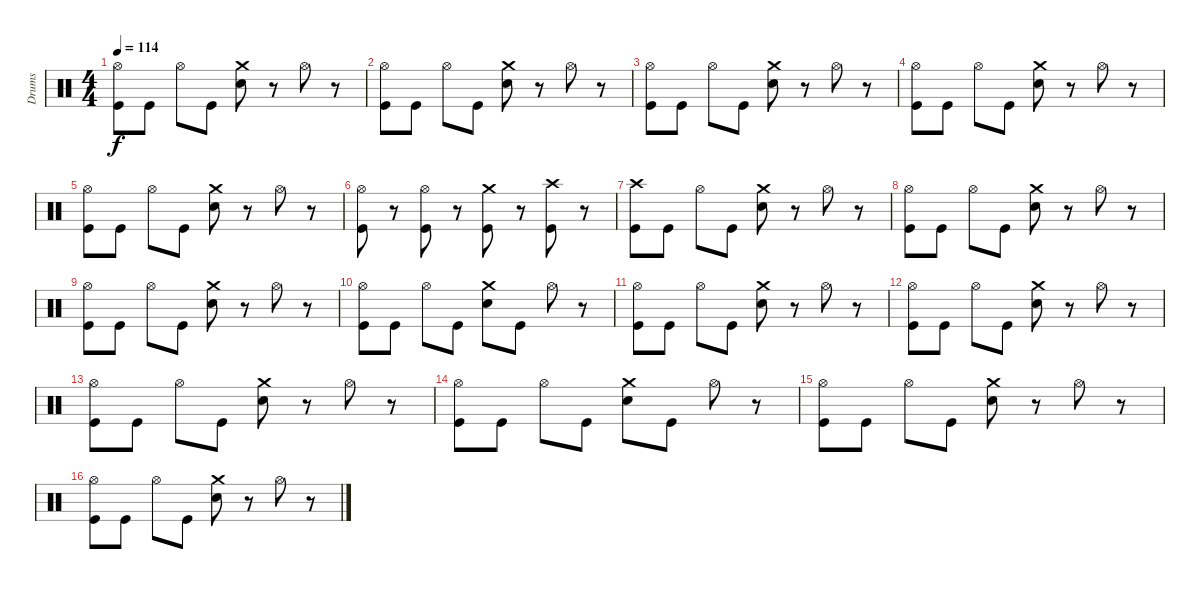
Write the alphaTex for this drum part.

\track ("Drums" "Drums") {instrument percussion}
\staff {score}
\articulation defaults
\ts (4 4)
\tempo 114
\clef neutral
\ks c
("Kick (hit)" "Hi-Hat (open)").8{dy f} "Kick (hit)".8 "Hi-Hat (open)".8 "Kick (hit)".8 ("Crash medium (hit)" "Electric Snare (hit)").8 r.8 "Hi-Hat (open)".8 r.8 |
("Kick (hit)" "Hi-Hat (open)").8 "Kick (hit)".8 "Hi-Hat (open)".8 "Kick (hit)".8 ("Crash medium (hit)" "Electric Snare (hit)").8 r.8 "Hi-Hat (open)".8 r.8 |
("Hi-Hat (open)" "Kick (hit)").8 "Kick (hit)".8 "Hi-Hat (open)".8 "Kick (hit)".8 ("Crash medium (hit)" "Electric Snare (hit)").8 r.8 "Hi-Hat (open)".8 r.8 |
("Kick (hit)" "Hi-Hat (open)").8 "Kick (hit)".8 "Hi-Hat (open)".8 "Kick (hit)".8 ("Crash medium (hit)" "Electric Snare (hit)").8 r.8 "Hi-Hat (open)".8 r.8 |
("Kick (hit)" "Hi-Hat (open)").8 "Kick (hit)".8 "Hi-Hat (open)".8 "Kick (hit)".8 ("Crash medium (hit)" "Electric Snare (hit)").8 r.8 "Hi-Hat (open)".8 r.8 |
("Hi-Hat (open)" "Kick (hit)").8 r.8 ("Hi-Hat (open)" "Kick (hit)").8 r.8 ("Crash medium (hit)" "Kick (hit)").8 r.8 ("Crash high (hit)" "Kick (hit)").8 r.8 |
("Crash high (hit)" "Kick (hit)").8 "Kick (hit)".8 "Hi-Hat (open)".8 "Kick (hit)".8 ("Crash medium (hit)" "Electric Snare (hit)").8 r.8 "Hi-Hat (open)".8 r.8 |
("Kick (hit)" "Hi-Hat (open)").8 "Kick (hit)".8 "Hi-Hat (open)".8 "Kick (hit)".8 ("Crash medium (hit)" "Electric Snare (hit)").8 r.8 "Hi-Hat (open)".8 r.8 |
("Kick (hit)" "Hi-Hat (open)").8 "Kick (hit)".8 "Hi-Hat (open)".8 "Kick (hit)".8 ("Crash medium (hit)" "Electric Snare (hit)").8 r.8 "Hi-Hat (open)".8 r.8 |
("Kick (hit)" "Hi-Hat (open)").8 "Kick (hit)".8 "Hi-Hat (open)".8 "Kick (hit)".8 ("Crash medium (hit)" "Electric Snare (hit)").8 "Kick (hit)".8 "Hi-Hat (open)".8 r.8 |
("Kick (hit)" "Hi-Hat (open)").8 "Kick (hit)".8 "Hi-Hat (open)".8 "Kick (hit)".8 ("Crash medium (hit)" "Electric Snare (hit)").8 r.8 "Hi-Hat (open)".8 r.8 |
("Kick (hit)" "Hi-Hat (open)").8 "Kick (hit)".8 "Hi-Hat (open)".8 "Kick (hit)".8 ("Crash medium (hit)" "Electric Snare (hit)").8 r.8 "Hi-Hat (open)".8 r.8 |
("Kick (hit)" "Hi-Hat (open)").8 "Kick (hit)".8 "Hi-Hat (open)".8 "Kick (hit)".8 ("Crash medium (hit)" "Electric Snare (hit)").8 r.8 "Hi-Hat (open)".8 r.8 |
("Kick (hit)" "Hi-Hat (open)").8 "Kick (hit)".8 "Hi-Hat (open)".8 "Kick (hit)".8 ("Crash medium (hit)" "Electric Snare (hit)").8 "Kick (hit)".8 "Hi-Hat (open)".8 r.8 |
("Kick (hit)" "Hi-Hat (open)").8 "Kick (hit)".8 "Hi-Hat (open)".8 "Kick (hit)".8 ("Crash medium (hit)" "Electric Snare (hit)").8 r.8 "Hi-Hat (open)".8 r.8 |
("Kick (hit)" "Hi-Hat (open)").8 "Kick (hit)".8 "Hi-Hat (open)".8 "Kick (hit)".8 ("Crash medium (hit)" "Electric Snare (hit)").8 r.8 "Hi-Hat (open)".8 r.8
